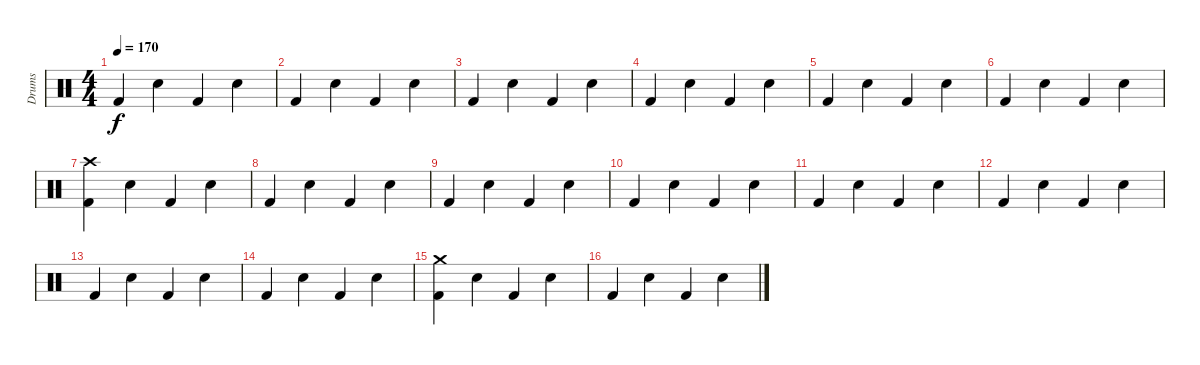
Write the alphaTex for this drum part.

\track ("Drums" "Drums") {instrument percussion}
\staff {score}
\articulation defaults
\ts (4 4)
\tempo 170
\clef neutral
\ks c "Kick (hit) 2".4{dy f} "Snare (hit) 2".4 "Kick (hit) 2".4 "Snare (hit) 2".4
|
"Kick (hit) 2".4 "Snare (hit) 2".4 "Kick (hit) 2".4 "Snare (hit) 2".4 |
"Kick (hit) 2".4 "Snare (hit) 2".4 "Kick (hit) 2".4 "Snare (hit) 2".4 |
"Kick (hit) 2".4 "Snare (hit) 2".4 "Kick (hit) 2".4 "Snare (hit) 2".4 |
"Kick (hit) 2".4 "Snare (hit) 2".4 "Kick (hit) 2".4 "Snare (hit) 2".4 |
"Kick (hit) 2".4 "Snare (hit) 2".4 "Kick (hit) 2".4 "Snare (hit) 2".4 |
("Crash high (hit)" "Kick (hit) 2").4 "Snare (hit) 2".4 "Kick (hit) 2".4 "Snare (hit) 2".4 |
"Kick (hit) 2".4 "Snare (hit) 2".4 "Kick (hit) 2".4 "Snare (hit) 2".4 |
"Kick (hit) 2".4 "Snare (hit) 2".4 "Kick (hit) 2".4 "Snare (hit) 2".4 |
"Kick (hit) 2".4 "Snare (hit) 2".4 "Kick (hit) 2".4 "Snare (hit) 2".4 |
"Kick (hit) 2".4 "Snare (hit) 2".4 "Kick (hit) 2".4 "Snare (hit) 2".4 |
"Kick (hit) 2".4 "Snare (hit) 2".4 "Kick (hit) 2".4 "Snare (hit) 2".4 |
"Kick (hit) 2".4 "Snare (hit) 2".4 "Kick (hit) 2".4 "Snare (hit) 2".4 |
"Kick (hit) 2".4 "Snare (hit) 2".4 "Kick (hit) 2".4 "Snare (hit) 2".4 |
("Crash medium (hit)" "Kick (hit) 2").4 "Snare (hit) 2".4 "Kick (hit) 2".4 "Snare (hit) 2".4 |
"Kick (hit) 2".4 "Snare (hit) 2".4 "Kick (hit) 2".4 "Snare (hit) 2".4
